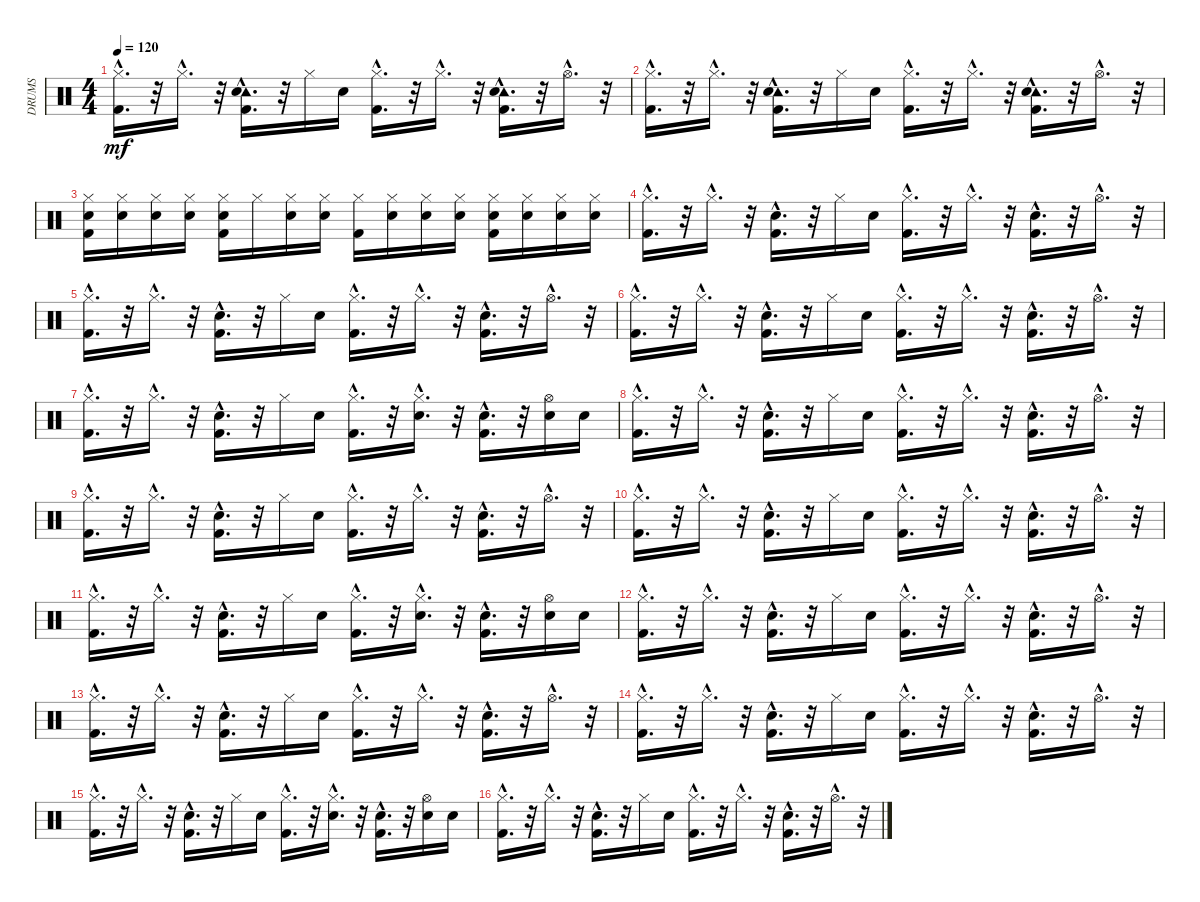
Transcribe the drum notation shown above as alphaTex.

\track ("DRUMS" "DRUMS") {instrument percussion}
\staff {score}
\articulation defaults
\ts (4 4)
\tempo 120
\clef neutral
\ks c
("Kick (hit) 2"{hac} "Hi-Hat (closed)"{hac}).16{d dy mf} r.32 "Hi-Hat (closed)"{hac}.16{d} r.32 ("Tambourine (hit)"{hac} "Kick (hit) 2"{hac} "Electric Snare (hit)"{hac}).16{d} r.32 "Hi-Hat (closed)".16 "Electric Snare (hit)".16 ("Kick (hit) 2"{hac} "Hi-Hat (closed)"{hac}).16{d} r.32 "Hi-Hat (closed)"{hac}.16{d} r.32 ("Tambourine (hit)"{hac} "Kick (hit) 2"{hac} "Electric Snare (hit)"{hac}).16{d} r.32 "Hi-Hat (open)"{hac}.16{d} r.32 |
("Kick (hit) 2"{hac} "Hi-Hat (closed)"{hac}).16{d} r.32 "Hi-Hat (closed)"{hac}.16{d} r.32 ("Tambourine (hit)"{hac} "Kick (hit) 2"{hac} "Electric Snare (hit)"{hac}).16{d} r.32 "Hi-Hat (closed)".16 "Electric Snare (hit)".16 ("Kick (hit) 2"{hac} "Hi-Hat (closed)"{hac}).16{d} r.32 "Hi-Hat (closed)"{hac}.16{d} r.32 ("Tambourine (hit)"{hac} "Kick (hit) 2"{hac} "Electric Snare (hit)"{hac}).16{d} r.32 "Hi-Hat (open)"{hac}.16{d} r.32 |
("Hi-Hat (closed)" "Kick (hit) 2" "Electric Snare (hit)").16 ("Hi-Hat (closed)" "Electric Snare (hit)").16 ("Electric Snare (hit)" "Hi-Hat (closed)").16 ("Hi-Hat (closed)" "Electric Snare (hit)").16 ("Electric Snare (hit)" "Kick (hit) 2" "Hi-Hat (closed)").16 "Hi-Hat (closed)".16 ("Hi-Hat (closed)" "Electric Snare (hit)").16 ("Electric Snare (hit)" "Hi-Hat (closed)").16 ("Kick (hit) 2" "Hi-Hat (closed)").16 ("Electric Snare (hit)" "Hi-Hat (closed)").16 ("Electric Snare (hit)" "Hi-Hat (closed)").16 ("Electric Snare (hit)" "Hi-Hat (closed)").16 ("Electric Snare (hit)" "Kick (hit) 2" "Hi-Hat (closed)").16 ("Electric Snare (hit)" "Hi-Hat (closed)").16 ("Hi-Hat (closed)" "Electric Snare (hit)").16 ("Hi-Hat (closed)" "Electric Snare (hit)").16 |
("Hi-Hat (closed)"{hac} "Kick (hit) 2"{hac}).16{d} r.32 "Hi-Hat (closed)"{hac}.16{d} r.32 ("Electric Snare (hit)"{hac} "Kick (hit) 2"{hac}).16{d} r.32 "Hi-Hat (closed)".16 "Electric Snare (hit)".16 ("Kick (hit) 2"{hac} "Hi-Hat (closed)"{hac}).16{d} r.32 "Hi-Hat (closed)"{hac}.16{d} r.32 ("Electric Snare (hit)"{hac} "Kick (hit) 2"{hac}).16{d} r.32 "Hi-Hat (open)"{hac}.16{d} r.32 |
("Kick (hit) 2"{hac} "Hi-Hat (closed)"{hac}).16{d} r.32 "Hi-Hat (closed)"{hac}.16{d} r.32 ("Kick (hit) 2"{hac} "Electric Snare (hit)"{hac}).16{d} r.32 "Hi-Hat (closed)".16 "Electric Snare (hit)".16 ("Kick (hit) 2"{hac} "Hi-Hat (closed)"{hac}).16{d} r.32 "Hi-Hat (closed)"{hac}.16{d} r.32 ("Kick (hit) 2"{hac} "Electric Snare (hit)"{hac}).16{d} r.32 "Hi-Hat (open)"{hac}.16{d} r.32 |
("Kick (hit) 2"{hac} "Hi-Hat (closed)"{hac}).16{d} r.32 "Hi-Hat (closed)"{hac}.16{d} r.32 ("Kick (hit) 2"{hac} "Electric Snare (hit)"{hac}).16{d} r.32 "Hi-Hat (closed)".16 "Electric Snare (hit)".16 ("Kick (hit) 2"{hac} "Hi-Hat (closed)"{hac}).16{d} r.32 "Hi-Hat (closed)"{hac}.16{d} r.32 ("Kick (hit) 2"{hac} "Electric Snare (hit)"{hac}).16{d} r.32 "Hi-Hat (open)"{hac}.16{d} r.32 |
("Kick (hit) 2"{hac} "Hi-Hat (closed)"{hac}).16{d} r.32 "Hi-Hat (closed)"{hac}.16{d} r.32 ("Kick (hit) 2"{hac} "Electric Snare (hit)"{hac}).16{d} r.32 "Hi-Hat (closed)".16 "Electric Snare (hit)".16 ("Kick (hit) 2"{hac} "Hi-Hat (closed)"{hac}).16{d} r.32 ("Electric Snare (hit)"{hac} "Hi-Hat (closed)"{hac}).16{d} r.32 ("Kick (hit) 2"{hac} "Electric Snare (hit)"{hac}).16{d} r.32 ("Electric Snare (hit)" "Hi-Hat (open)").16 "Electric Snare (hit)".16 |
("Kick (hit) 2"{hac} "Hi-Hat (closed)"{hac}).16{d} r.32 "Hi-Hat (closed)"{hac}.16{d} r.32 ("Kick (hit) 2"{hac} "Electric Snare (hit)"{hac}).16{d} r.32 "Hi-Hat (closed)".16 "Electric Snare (hit)".16 ("Hi-Hat (closed)"{hac} "Kick (hit) 2"{hac}).16{d} r.32 "Hi-Hat (closed)"{hac}.16{d} r.32 ("Kick (hit) 2"{hac} "Electric Snare (hit)"{hac}).16{d} r.32 "Hi-Hat (open)"{hac}.16{d} r.32 |
("Hi-Hat (closed)"{hac} "Kick (hit) 2"{hac}).16{d} r.32 "Hi-Hat (closed)"{hac}.16{d} r.32 ("Electric Snare (hit)"{hac} "Kick (hit) 2"{hac}).16{d} r.32 "Hi-Hat (closed)".16 "Electric Snare (hit)".16 ("Hi-Hat (closed)"{hac} "Kick (hit) 2"{hac}).16{d} r.32 "Hi-Hat (closed)"{hac}.16{d} r.32 ("Electric Snare (hit)"{hac} "Kick (hit) 2"{hac}).16{d} r.32 "Hi-Hat (open)"{hac}.16{d} r.32 |
("Hi-Hat (closed)"{hac} "Kick (hit) 2"{hac}).16{d} r.32 "Hi-Hat (closed)"{hac}.16{d} r.32 ("Electric Snare (hit)"{hac} "Kick (hit) 2"{hac}).16{d} r.32 "Hi-Hat (closed)".16 "Electric Snare (hit)".16 ("Hi-Hat (closed)"{hac} "Kick (hit) 2"{hac}).16{d} r.32 "Hi-Hat (closed)"{hac}.16{d} r.32 ("Electric Snare (hit)"{hac} "Kick (hit) 2"{hac}).16{d} r.32 "Hi-Hat (open)"{hac}.16{d} r.32 |
("Hi-Hat (closed)"{hac} "Kick (hit) 2"{hac}).16{d} r.32 "Hi-Hat (closed)"{hac}.16{d} r.32 ("Electric Snare (hit)"{hac} "Kick (hit) 2"{hac}).16{d} r.32 "Hi-Hat (closed)".16 "Electric Snare (hit)".16 ("Hi-Hat (closed)"{hac} "Kick (hit) 2"{hac}).16{d} r.32 ("Hi-Hat (closed)"{hac} "Electric Snare (hit)"{hac}).16{d} r.32 ("Electric Snare (hit)"{hac} "Kick (hit) 2"{hac}).16{d} r.32 ("Hi-Hat (open)" "Electric Snare (hit)").16 "Electric Snare (hit)".16 |
("Hi-Hat (closed)"{hac} "Kick (hit) 2"{hac}).16{d} r.32 "Hi-Hat (closed)"{hac}.16{d} r.32 ("Electric Snare (hit)"{hac} "Kick (hit) 2"{hac}).16{d} r.32 "Hi-Hat (closed)".16 "Electric Snare (hit)".16 ("Kick (hit) 2"{hac} "Hi-Hat (closed)"{hac}).16{d} r.32 "Hi-Hat (closed)"{hac}.16{d} r.32 ("Electric Snare (hit)"{hac} "Kick (hit) 2"{hac}).16{d} r.32 "Hi-Hat (open)"{hac}.16{d} r.32 |
("Kick (hit) 2"{hac} "Hi-Hat (closed)"{hac}).16{d} r.32 "Hi-Hat (closed)"{hac}.16{d} r.32 ("Kick (hit) 2"{hac} "Electric Snare (hit)"{hac}).16{d} r.32 "Hi-Hat (closed)".16 "Electric Snare (hit)".16 ("Kick (hit) 2"{hac} "Hi-Hat (closed)"{hac}).16{d} r.32 "Hi-Hat (closed)"{hac}.16{d} r.32 ("Kick (hit) 2"{hac} "Electric Snare (hit)"{hac}).16{d} r.32 "Hi-Hat (open)"{hac}.16{d} r.32 |
("Kick (hit) 2"{hac} "Hi-Hat (closed)"{hac}).16{d} r.32 "Hi-Hat (closed)"{hac}.16{d} r.32 ("Kick (hit) 2"{hac} "Electric Snare (hit)"{hac}).16{d} r.32 "Hi-Hat (closed)".16 "Electric Snare (hit)".16 ("Kick (hit) 2"{hac} "Hi-Hat (closed)"{hac}).16{d} r.32 "Hi-Hat (closed)"{hac}.16{d} r.32 ("Kick (hit) 2"{hac} "Electric Snare (hit)"{hac}).16{d} r.32 "Hi-Hat (open)"{hac}.16{d} r.32 |
("Kick (hit) 2"{hac} "Hi-Hat (closed)"{hac}).16{d} r.32 "Hi-Hat (closed)"{hac}.16{d} r.32 ("Kick (hit) 2"{hac} "Electric Snare (hit)"{hac}).16{d} r.32 "Hi-Hat (closed)".16 "Electric Snare (hit)".16 ("Kick (hit) 2"{hac} "Hi-Hat (closed)"{hac}).16{d} r.32 ("Electric Snare (hit)"{hac} "Hi-Hat (closed)"{hac}).16{d} r.32 ("Kick (hit) 2"{hac} "Electric Snare (hit)"{hac}).16{d} r.32 ("Electric Snare (hit)" "Hi-Hat (open)").16 "Electric Snare (hit)".16 |
("Kick (hit) 2"{hac} "Hi-Hat (closed)"{hac}).16{d} r.32 "Hi-Hat (closed)"{hac}.16{d} r.32 ("Kick (hit) 2"{hac} "Electric Snare (hit)"{hac}).16{d} r.32 "Hi-Hat (closed)".16 "Electric Snare (hit)".16 ("Hi-Hat (closed)"{hac} "Kick (hit) 2"{hac}).16{d} r.32 "Hi-Hat (closed)"{hac}.16{d} r.32 ("Kick (hit) 2"{hac} "Electric Snare (hit)"{hac}).16{d} r.32 "Hi-Hat (open)"{hac}.16{d} r.32
